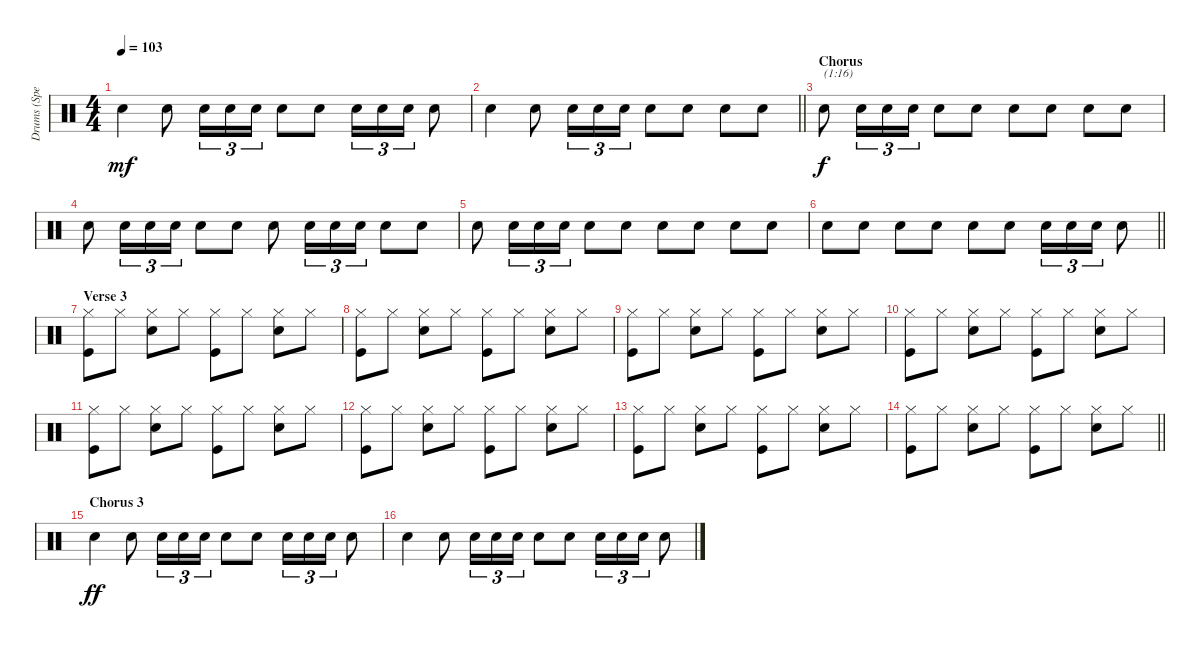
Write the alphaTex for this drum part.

\track ("Drums (Spencer Dryden)" "Drums (Spe") {instrument percussion}
\staff {score}
\articulation defaults
\ts (4 4)
\tempo 103
\clef neutral
\ks c "Snare (hit) 2".4{dy mf} "Snare (hit) 2".8 "Snare (hit) 2".16{tu (3 2)} "Snare (hit) 2".16{tu (3 2)} "Snare (hit) 2".16{tu (3 2)} "Snare (hit) 2".8 "Snare (hit) 2".8 "Snare (hit) 2".16{tu (3 2)} "Snare (hit) 2".16{tu (3 2)} "Snare (hit) 2".16{tu (3 2)} "Snare (hit) 2".8
|
\barLineRight lightlight "Snare (hit) 2".4 "Snare (hit) 2".8 "Snare (hit) 2".16{tu (3 2)} "Snare (hit) 2".16{tu (3 2)} "Snare (hit) 2".16{tu (3 2)} "Snare (hit) 2".8 "Snare (hit) 2".8 "Snare (hit) 2".8 "Snare (hit) 2".8
|
\section ("" "Chorus")
"Snare (hit) 2".8{txt "(1:16)" dy f} "Snare (hit) 2".16{tu (3 2)} "Snare (hit) 2".16{tu (3 2)} "Snare (hit) 2".16{tu (3 2)} "Snare (hit) 2".8 "Snare (hit) 2".8 "Snare (hit) 2".8 "Snare (hit) 2".8 "Snare (hit) 2".8 "Snare (hit) 2".8 |
"Snare (hit) 2".8 "Snare (hit) 2".16{tu (3 2)} "Snare (hit) 2".16{tu (3 2)} "Snare (hit) 2".16{tu (3 2)} "Snare (hit) 2".8 "Snare (hit) 2".8 "Snare (hit) 2".8 "Snare (hit) 2".16{tu (3 2)} "Snare (hit) 2".16{tu (3 2)} "Snare (hit) 2".16{tu (3 2)} "Snare (hit) 2".8 "Snare (hit) 2".8 |
"Snare (hit) 2".8 "Snare (hit) 2".16{tu (3 2)} "Snare (hit) 2".16{tu (3 2)} "Snare (hit) 2".16{tu (3 2)} "Snare (hit) 2".8 "Snare (hit) 2".8 "Snare (hit) 2".8 "Snare (hit) 2".8 "Snare (hit) 2".8 "Snare (hit) 2".8 |
\barLineRight lightlight "Snare (hit) 2".8 "Snare (hit) 2".8 "Snare (hit) 2".8 "Snare (hit) 2".8 "Snare (hit) 2".8 "Snare (hit) 2".8 "Snare (hit) 2".16{tu (3 2)} "Snare (hit) 2".16{tu (3 2)} "Snare (hit) 2".16{tu (3 2)} "Snare (hit) 2".8
|
\section ("" "Verse 3")
("Hi-Hat (closed)" "Kick (hit)").8 "Hi-Hat (closed)".8 ("Hi-Hat (closed)" "Snare (hit) 2").8 "Hi-Hat (closed)".8 ("Hi-Hat (closed)" "Kick (hit)").8 "Hi-Hat (closed)".8 ("Hi-Hat (closed)" "Snare (hit) 2").8 "Hi-Hat (closed)".8 |
("Hi-Hat (closed)" "Kick (hit)").8 "Hi-Hat (closed)".8 ("Hi-Hat (closed)" "Snare (hit) 2").8 "Hi-Hat (closed)".8 ("Hi-Hat (closed)" "Kick (hit)").8 "Hi-Hat (closed)".8 ("Hi-Hat (closed)" "Snare (hit) 2").8 "Hi-Hat (closed)".8 |
("Hi-Hat (closed)" "Kick (hit)").8 "Hi-Hat (closed)".8 ("Hi-Hat (closed)" "Snare (hit) 2").8 "Hi-Hat (closed)".8 ("Hi-Hat (closed)" "Kick (hit)").8 "Hi-Hat (closed)".8 ("Hi-Hat (closed)" "Snare (hit) 2").8 "Hi-Hat (closed)".8 |
("Hi-Hat (closed)" "Kick (hit)").8 "Hi-Hat (closed)".8 ("Hi-Hat (closed)" "Snare (hit) 2").8 "Hi-Hat (closed)".8 ("Hi-Hat (closed)" "Kick (hit)").8 "Hi-Hat (closed)".8 ("Hi-Hat (closed)" "Snare (hit) 2").8 "Hi-Hat (closed)".8 |
("Hi-Hat (closed)" "Kick (hit)").8 "Hi-Hat (closed)".8 ("Hi-Hat (closed)" "Snare (hit) 2").8 "Hi-Hat (closed)".8 ("Hi-Hat (closed)" "Kick (hit)").8 "Hi-Hat (closed)".8 ("Hi-Hat (closed)" "Snare (hit) 2").8 "Hi-Hat (closed)".8 |
("Hi-Hat (closed)" "Kick (hit)").8 "Hi-Hat (closed)".8 ("Hi-Hat (closed)" "Snare (hit) 2").8 "Hi-Hat (closed)".8 ("Hi-Hat (closed)" "Kick (hit)").8 "Hi-Hat (closed)".8 ("Hi-Hat (closed)" "Snare (hit) 2").8 "Hi-Hat (closed)".8 |
("Hi-Hat (closed)" "Kick (hit)").8 "Hi-Hat (closed)".8 ("Hi-Hat (closed)" "Snare (hit) 2").8 "Hi-Hat (closed)".8 ("Hi-Hat (closed)" "Kick (hit)").8 "Hi-Hat (closed)".8 ("Hi-Hat (closed)" "Snare (hit) 2").8 "Hi-Hat (closed)".8 |
\barLineRight lightlight
("Hi-Hat (closed)" "Kick (hit)").8 "Hi-Hat (closed)".8 ("Hi-Hat (closed)" "Snare (hit) 2").8 "Hi-Hat (closed)".8 ("Hi-Hat (closed)" "Kick (hit)").8 "Hi-Hat (closed)".8 ("Hi-Hat (closed)" "Snare (hit) 2").8 "Hi-Hat (closed)".8 |
\section ("" "Chorus 3")
"Snare (hit) 2".4{dy ff} "Snare (hit) 2".8 "Snare (hit) 2".16{tu (3 2)} "Snare (hit) 2".16{tu (3 2)} "Snare (hit) 2".16{tu (3 2)} "Snare (hit) 2".8 "Snare (hit) 2".8 "Snare (hit) 2".16{tu (3 2)} "Snare (hit) 2".16{tu (3 2)} "Snare (hit) 2".16{tu (3 2)} "Snare (hit) 2".8 |
"Snare (hit) 2".4 "Snare (hit) 2".8 "Snare (hit) 2".16{tu (3 2)} "Snare (hit) 2".16{tu (3 2)} "Snare (hit) 2".16{tu (3 2)} "Snare (hit) 2".8 "Snare (hit) 2".8 "Snare (hit) 2".16{tu (3 2)} "Snare (hit) 2".16{tu (3 2)} "Snare (hit) 2".16{tu (3 2)} "Snare (hit) 2".8
